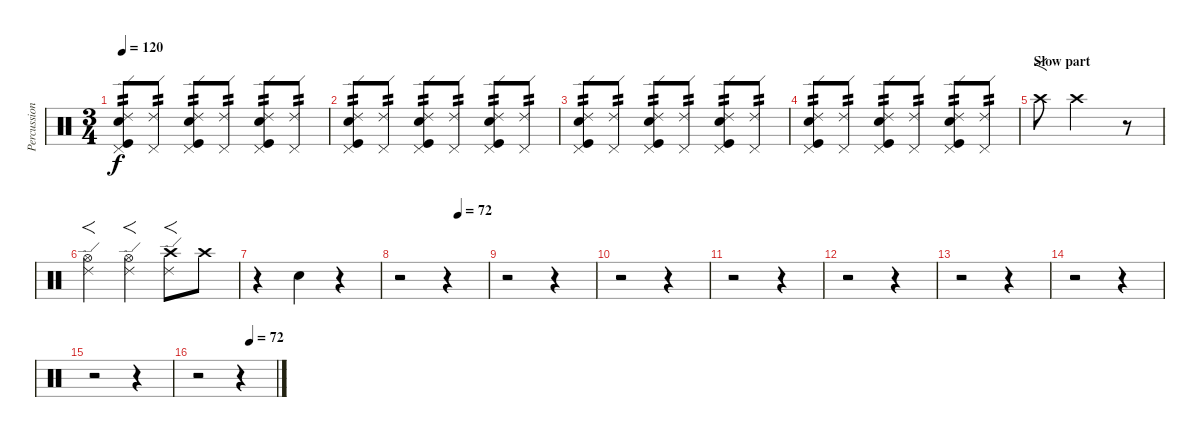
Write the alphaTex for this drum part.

\track ("Percussion" "Percussion") {instrument percussion}
\staff {score}
\articulation defaults
\ts (3 4)
\tempo 120
\clef neutral
\ks c
("Pedal Hi-Hat (hit)" "Kick (hit)" "Electric Snare (hit)" "Ride (edge) 2").8{tp 2 dy f} ("Pedal Hi-Hat (hit)" "Ride (edge) 2").8{tp 2} ("Pedal Hi-Hat (hit)" "Kick (hit)" "Electric Snare (hit)" "Ride (edge) 2").8{tp 2} ("Pedal Hi-Hat (hit)" "Ride (edge) 2").8{tp 2} ("Pedal Hi-Hat (hit)" "Kick (hit)" "Electric Snare (hit)" "Ride (edge) 2").8{tp 2} ("Pedal Hi-Hat (hit)" "Ride (edge) 2").8{tp 2} |
("Pedal Hi-Hat (hit)" "Kick (hit)" "Electric Snare (hit)" "Ride (edge) 2").8{tp 2} ("Pedal Hi-Hat (hit)" "Ride (edge) 2").8{tp 2} ("Pedal Hi-Hat (hit)" "Kick (hit)" "Electric Snare (hit)" "Ride (edge) 2").8{tp 2} ("Pedal Hi-Hat (hit)" "Ride (edge) 2").8{tp 2} ("Pedal Hi-Hat (hit)" "Kick (hit)" "Electric Snare (hit)" "Ride (edge) 2").8{tp 2} ("Pedal Hi-Hat (hit)" "Ride (edge) 2").8{tp 2} |
("Pedal Hi-Hat (hit)" "Kick (hit)" "Electric Snare (hit)" "Ride (edge) 2").8{tp 2} ("Pedal Hi-Hat (hit)" "Ride (edge) 2").8{tp 2} ("Pedal Hi-Hat (hit)" "Kick (hit)" "Electric Snare (hit)" "Ride (edge) 2").8{tp 2} ("Pedal Hi-Hat (hit)" "Ride (edge) 2").8{tp 2} ("Pedal Hi-Hat (hit)" "Kick (hit)" "Electric Snare (hit)" "Ride (edge) 2").8{tp 2} ("Pedal Hi-Hat (hit)" "Ride (edge) 2").8{tp 2} |
("Pedal Hi-Hat (hit)" "Kick (hit)" "Electric Snare (hit)" "Ride (edge) 2").8{tp 2} ("Pedal Hi-Hat (hit)" "Ride (edge) 2").8{tp 2} ("Pedal Hi-Hat (hit)" "Kick (hit)" "Electric Snare (hit)" "Ride (edge) 2").8{tp 2} ("Pedal Hi-Hat (hit)" "Ride (edge) 2").8{tp 2} ("Pedal Hi-Hat (hit)" "Kick (hit)" "Electric Snare (hit)" "Ride (edge) 2").8{tp 2} ("Pedal Hi-Hat (hit)" "Ride (edge) 2").8{tp 2} |
\section ("" "Slow part")
"Crash high (hit)".8{f} "Crash high (hit)".2 r.8 |
("Hi-Hat (open)" "Ride (edge) 2").4{f} ("Hi-Hat (open)" "Ride (edge) 2").4{f} ("Ride (edge) 2" "Crash high (hit)").8{f} "Crash high (hit)".8 |
r.4 "Metronome (bell)".4 r.4 |
\tempo (72 0.6666666666666666)
r.2 r.4 |
r.2 r.4 |
r.2 r.4 |
r.2 r.4 |
r.2 r.4 |
r.2 r.4 |
r.2 r.4 |
r.2 r.4 |
\tempo (72 0.6666666666666666)
r.2 r.4
